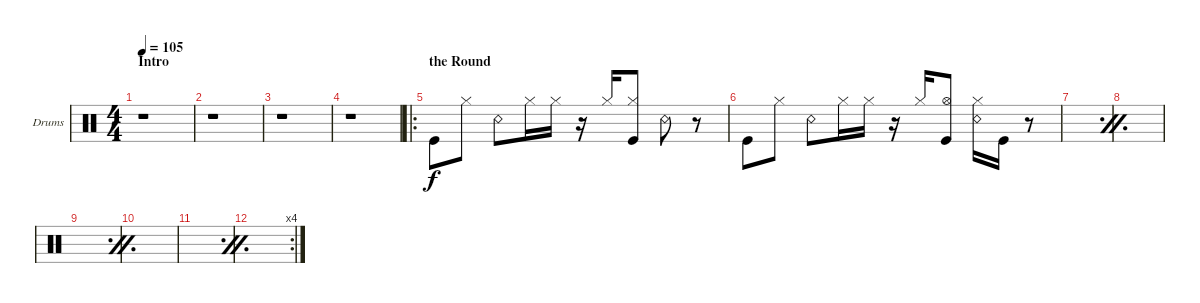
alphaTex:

\defaultSystemsLayout 4
\bracketExtendMode groupsimilarinstruments
\firstSystemTrackNameOrientation horizontal
\otherSystemsTrackNameOrientation horizontal
\track ("Drumkit" "Drums") {instrument percussion}
\staff {score}
\articulation defaults
\ts (4 4)
\section ("" "Intro")
\tempo 105
\clef neutral
\ks c
r.1{dy f} |
r.1 |
r.1 |
r.1 |
\ro
\section ("" "the Round")
\scale
0.261396 "Kick (hit)".8 "Hi-Hat (closed)".8 "Snare (rim shot)".8 "Hi-Hat (closed)".16 "Hi-Hat (closed)".16 r.16 "Hi-Hat (closed)".16{beam invert} ("Hi-Hat (closed)" "Kick (hit)").8 "Snare (rim shot)".8 r.8 |
\scale
0.287466 "Kick (hit)".8 "Hi-Hat (closed)".8 "Snare (rim shot)".8 "Hi-Hat (closed)".16 "Hi-Hat (closed)".16 r.16 "Hi-Hat (closed)".16{beam invert} ("Hi-Hat (open)" "Kick (hit)").8 ("Snare (rim shot)" "Hi-Hat (closed)").16 "Kick (hit)".16 r.8 |
\scale
0.249269
\simile firstofdouble
|
\scale
0.19929
\simile secondofdouble
|
\scale
0.182992
\simile firstofdouble
|
\scale
0.197288
\simile secondofdouble
|
\scale
0.288175
\simile firstofdouble
|
\rc 4
\scale
0.33173
\simile secondofdouble
